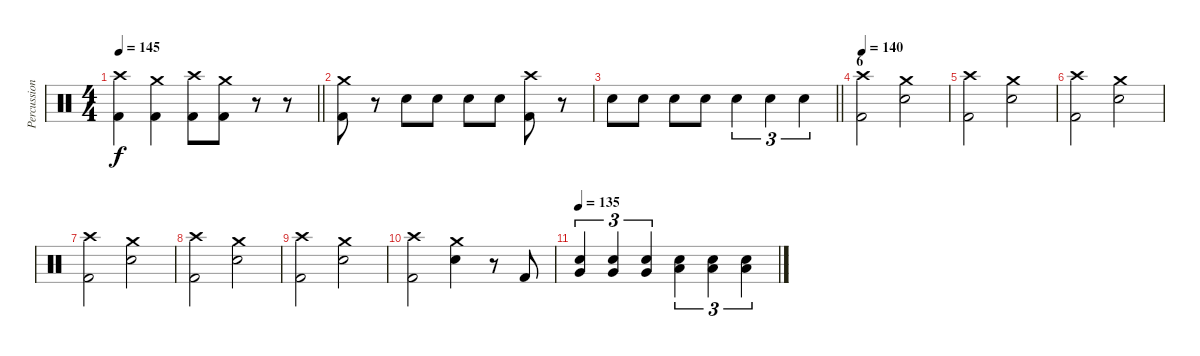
\track ("Percussion" "Percussion") {instrument percussion}
\staff {score}
\articulation defaults
\ts (4 4)
\tempo 145
\clef neutral
\barLineRight lightlight
\ks c
("Kick (hit) 2" "Crash high (hit)").4{dy f} ("Kick (hit) 2" "Crash medium (hit)").4 ("Kick (hit) 2" "Crash high (hit)").8 ("Kick (hit) 2" "Crash medium (hit)").8 r.8 r.8 |
("Crash medium (hit)" "Kick (hit) 2").8 r.8 "Electric Snare (hit)".8 "Electric Snare (hit)".8 "Electric Snare (hit)".8 "Electric Snare (hit)".8 ("Crash high (hit)" "Kick (hit) 2").8 r.8 |
\barLineRight lightlight "Electric Snare (hit)".8 "Electric Snare (hit)".8 "Electric Snare (hit)".8 "Electric Snare (hit)".8 "Electric Snare (hit)".4{tu (3 2)} "Electric Snare (hit)".4{tu (3 2)} "Electric Snare (hit)".4{tu (3 2)}
|
\section ("" "6")
\tempo 140
("Crash high (hit)" "Kick (hit) 2").2 ("Crash medium (hit)" "Electric Snare (hit)").2 |
("Crash high (hit)" "Kick (hit) 2").2 ("Crash medium (hit)" "Electric Snare (hit)").2 |
("Crash high (hit)" "Kick (hit) 2").2 ("Crash medium (hit)" "Electric Snare (hit)").2 |
("Crash high (hit)" "Kick (hit) 2").2 ("Crash medium (hit)" "Electric Snare (hit)").2 |
("Crash high (hit)" "Kick (hit) 2").2 ("Crash medium (hit)" "Electric Snare (hit)").2 |
("Crash high (hit)" "Kick (hit) 2").2 ("Crash medium (hit)" "Electric Snare (hit)").2 |
("Crash high (hit)" "Kick (hit) 2").2 ("Crash medium (hit)" "Electric Snare (hit)").4 r.8 "Kick (hit) 2".8 |
\tempo 135
("Electric Snare (hit)" "Very Low Tom (hit)").4{tu (3 2)} ("Electric Snare (hit)" "Very Low Tom (hit)").4{tu (3 2)} ("Electric Snare (hit)" "Very Low Tom (hit)").4{tu (3 2)} ("Electric Snare (hit)" "Low Floor Tom (hit)").4{tu (3 2)} ("Electric Snare (hit)" "Low Floor Tom (hit)").4{tu (3 2)} ("Electric Snare (hit)" "Low Floor Tom (hit)").4{tu (3 2)}
